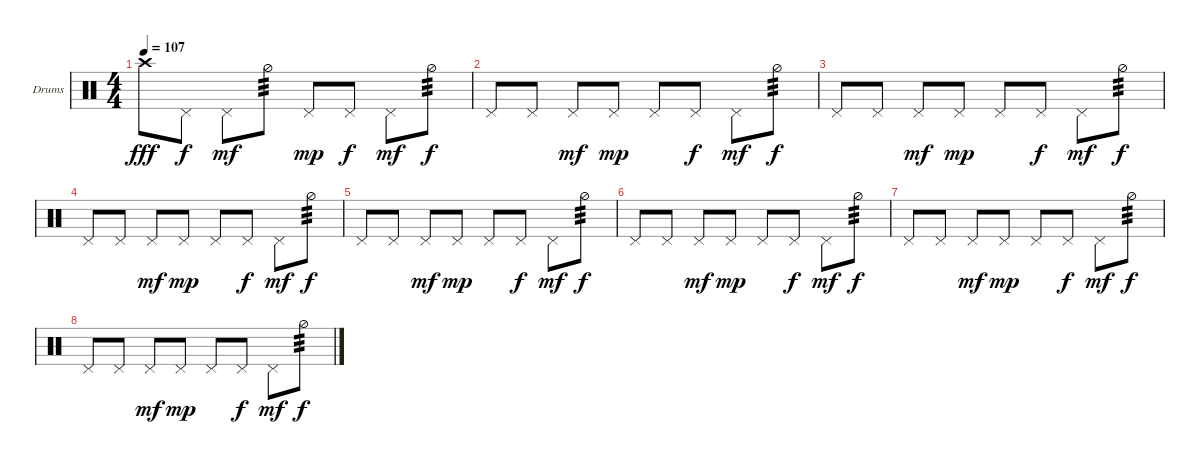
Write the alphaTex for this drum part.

\defaultSystemsLayout 4
\bracketExtendMode groupsimilarinstruments
\firstSystemTrackNameOrientation horizontal
\otherSystemsTrackNameOrientation horizontal
\track ("Helders" "Drums") {instrument percussion}
\staff {score}
\articulation defaults
\ts (4 4)
\tempo 107
\clef neutral
\ks c "Crash high (hit)".8{dy fff} "Pedal Hi-Hat (hit)".8{dy f} "Pedal Hi-Hat (hit)".8{dy mf} "Hi-Hat (half)".8{tp 3} "Pedal Hi-Hat (hit)".8{dy mp} "Pedal Hi-Hat (hit)".8{dy f} "Pedal Hi-Hat (hit)".8{dy mf} "Hi-Hat (half)".8{tp 3 dy f}
|
"Pedal Hi-Hat (hit)".8 "Pedal Hi-Hat (hit)".8 "Pedal Hi-Hat (hit)".8{dy mf} "Pedal Hi-Hat (hit)".8{dy mp} "Pedal Hi-Hat (hit)".8 "Pedal Hi-Hat (hit)".8{dy f} "Pedal Hi-Hat (hit)".8{dy mf} "Hi-Hat (half)".8{tp 3 dy f} |
"Pedal Hi-Hat (hit)".8 "Pedal Hi-Hat (hit)".8 "Pedal Hi-Hat (hit)".8{dy mf} "Pedal Hi-Hat (hit)".8{dy mp} "Pedal Hi-Hat (hit)".8 "Pedal Hi-Hat (hit)".8{dy f} "Pedal Hi-Hat (hit)".8{dy mf} "Hi-Hat (half)".8{tp 3 dy f} |
"Pedal Hi-Hat (hit)".8 "Pedal Hi-Hat (hit)".8 "Pedal Hi-Hat (hit)".8{dy mf} "Pedal Hi-Hat (hit)".8{dy mp} "Pedal Hi-Hat (hit)".8 "Pedal Hi-Hat (hit)".8{dy f} "Pedal Hi-Hat (hit)".8{dy mf} "Hi-Hat (half)".8{tp 3 dy f} |
"Pedal Hi-Hat (hit)".8 "Pedal Hi-Hat (hit)".8 "Pedal Hi-Hat (hit)".8{dy mf} "Pedal Hi-Hat (hit)".8{dy mp} "Pedal Hi-Hat (hit)".8 "Pedal Hi-Hat (hit)".8{dy f} "Pedal Hi-Hat (hit)".8{dy mf} "Hi-Hat (half)".8{tp 3 dy f} |
"Pedal Hi-Hat (hit)".8 "Pedal Hi-Hat (hit)".8 "Pedal Hi-Hat (hit)".8{dy mf} "Pedal Hi-Hat (hit)".8{dy mp} "Pedal Hi-Hat (hit)".8 "Pedal Hi-Hat (hit)".8{dy f} "Pedal Hi-Hat (hit)".8{dy mf} "Hi-Hat (half)".8{tp 3 dy f} |
"Pedal Hi-Hat (hit)".8 "Pedal Hi-Hat (hit)".8 "Pedal Hi-Hat (hit)".8{dy mf} "Pedal Hi-Hat (hit)".8{dy mp} "Pedal Hi-Hat (hit)".8 "Pedal Hi-Hat (hit)".8{dy f} "Pedal Hi-Hat (hit)".8{dy mf} "Hi-Hat (half)".8{tp 3 dy f} |
"Pedal Hi-Hat (hit)".8 "Pedal Hi-Hat (hit)".8 "Pedal Hi-Hat (hit)".8{dy mf} "Pedal Hi-Hat (hit)".8{dy mp} "Pedal Hi-Hat (hit)".8 "Pedal Hi-Hat (hit)".8{dy f} "Pedal Hi-Hat (hit)".8{dy mf} "Hi-Hat (half)".8{tp 3 dy f}
